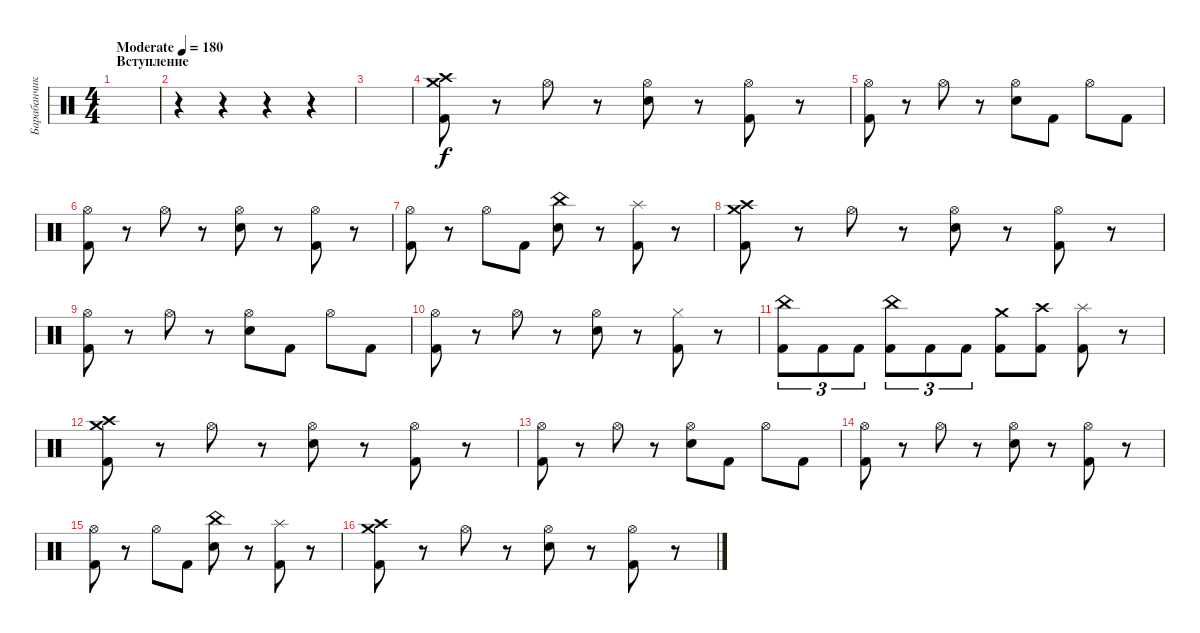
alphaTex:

\track ("Барабанчики" "Барабанчик") {instrument percussion}
\staff {score}
\articulation defaults
\ts (4 4)
\section ("" "Вступление")
\tempo (180 "Moderate")
\clef neutral
\ks c
|
r.4 r.4 r.4 r.4 |
|
("Kick (hit) 2" "Crash high (hit)" "Crash medium (hit)").8 r.8 "Hi-Hat (open)".8 r.8 ("Electric Snare (hit)" "Hi-Hat (open)").8 r.8 ("Kick (hit) 2" "Hi-Hat (open)").8 r.8 |
("Kick (hit) 2" "Hi-Hat (open)").8 r.8 "Hi-Hat (open)".8 r.8 ("Electric Snare (hit)" "Hi-Hat (open)").8 "Kick (hit) 2".8 "Hi-Hat (open)".8 "Kick (hit) 2".8 |
("Kick (hit) 2" "Hi-Hat (open)").8 r.8 "Hi-Hat (open)".8 r.8 ("Electric Snare (hit)" "Hi-Hat (open)").8 r.8 ("Kick (hit) 2" "Hi-Hat (open)").8 r.8 |
("Kick (hit) 2" "Hi-Hat (open)").8 r.8 "Hi-Hat (open)".8 "Kick (hit) 2".8 ("Electric Snare (hit)" "China (hit)").8 r.8 ("Kick (hit) 2" "Splash (hit)").8 r.8 |
("Kick (hit) 2" "Crash high (hit)" "Crash medium (hit)").8 r.8 "Hi-Hat (open)".8 r.8 ("Electric Snare (hit)" "Hi-Hat (open)").8 r.8 ("Kick (hit) 2" "Hi-Hat (open)").8 r.8 |
("Kick (hit) 2" "Hi-Hat (open)").8 r.8 "Hi-Hat (open)".8 r.8 ("Electric Snare (hit)" "Hi-Hat (open)").8 "Kick (hit) 2".8 "Hi-Hat (open)".8 "Kick (hit) 2".8 |
("Kick (hit) 2" "Hi-Hat (open)").8 r.8 "Hi-Hat (open)".8 r.8 ("Electric Snare (hit)" "Hi-Hat (open)").8 r.8 ("Kick (hit) 2" "Hi-Hat (closed)").8 r.8 |
("Kick (hit) 2" "China (hit)").8{tu (3 2)} "Kick (hit) 2".8{tu (3 2)} "Kick (hit) 2".8{tu (3 2)} ("Kick (hit) 2" "China (hit)").8{tu (3 2)} "Kick (hit) 2".8{tu (3 2)} "Kick (hit) 2".8{tu (3 2)} ("Kick (hit) 2" "Crash medium (hit)").8 ("Kick (hit) 2" "Crash high (hit)").8 ("Kick (hit) 2" "Splash (hit)").8 r.8 |
("Kick (hit) 2" "Crash high (hit)" "Crash medium (hit)").8 r.8 "Hi-Hat (open)".8 r.8 ("Electric Snare (hit)" "Hi-Hat (open)").8 r.8 ("Kick (hit) 2" "Hi-Hat (open)").8 r.8 |
("Kick (hit) 2" "Hi-Hat (open)").8 r.8 "Hi-Hat (open)".8 r.8 ("Electric Snare (hit)" "Hi-Hat (open)").8 "Kick (hit) 2".8 "Hi-Hat (open)".8 "Kick (hit) 2".8 |
("Kick (hit) 2" "Hi-Hat (open)").8 r.8 "Hi-Hat (open)".8 r.8 ("Electric Snare (hit)" "Hi-Hat (open)").8 r.8 ("Kick (hit) 2" "Hi-Hat (open)").8 r.8 |
("Kick (hit) 2" "Hi-Hat (open)").8 r.8 "Hi-Hat (open)".8 "Kick (hit) 2".8 ("Electric Snare (hit)" "China (hit)").8 r.8 ("Kick (hit) 2" "Splash (hit)").8 r.8 |
("Kick (hit) 2" "Crash high (hit)" "Crash medium (hit)").8 r.8 "Hi-Hat (open)".8 r.8 ("Electric Snare (hit)" "Hi-Hat (open)").8 r.8 ("Kick (hit) 2" "Hi-Hat (open)").8 r.8
